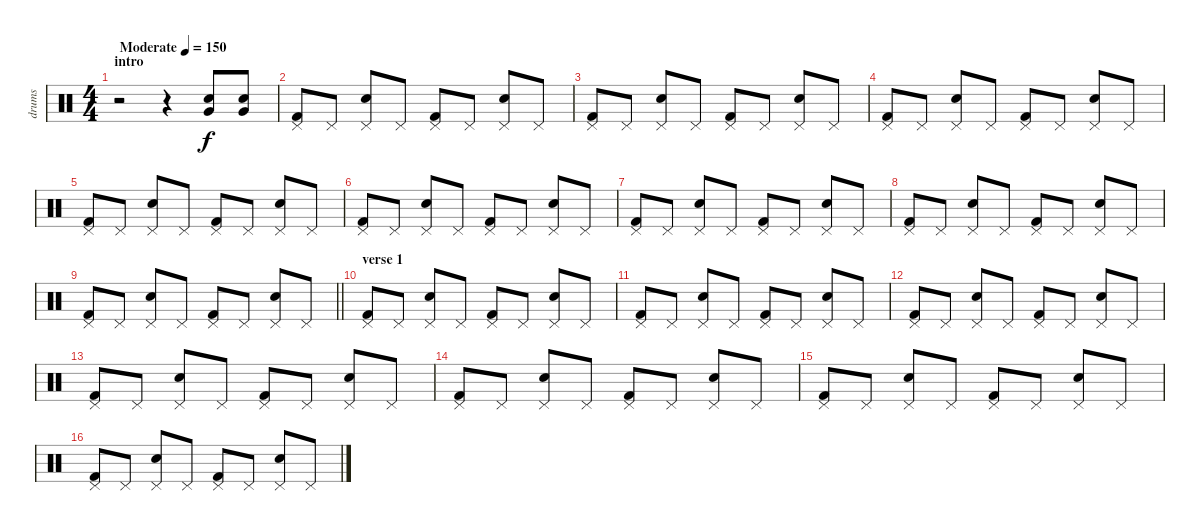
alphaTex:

\track ("drums" "drums") {instrument percussion}
\staff {score}
\articulation defaults
\ts (4 4)
\section ("" "intro")
\tempo (150 "Moderate")
\clef neutral
\ks c
r.2{dy f} r.4 ("Electric Snare (hit)" "Very Low Tom (hit)").8 ("Electric Snare (hit)" "Very Low Tom (hit)").8 |
("Kick (hit) 2" "Pedal Hi-Hat (hit)").8 "Pedal Hi-Hat (hit)".8 ("Electric Snare (hit)" "Pedal Hi-Hat (hit)").8 "Pedal Hi-Hat (hit)".8 ("Kick (hit) 2" "Pedal Hi-Hat (hit)").8 "Pedal Hi-Hat (hit)".8 ("Electric Snare (hit)" "Pedal Hi-Hat (hit)").8 "Pedal Hi-Hat (hit)".8 |
("Kick (hit) 2" "Pedal Hi-Hat (hit)").8 "Pedal Hi-Hat (hit)".8 ("Electric Snare (hit)" "Pedal Hi-Hat (hit)").8 "Pedal Hi-Hat (hit)".8 ("Kick (hit) 2" "Pedal Hi-Hat (hit)").8 "Pedal Hi-Hat (hit)".8 ("Electric Snare (hit)" "Pedal Hi-Hat (hit)").8 "Pedal Hi-Hat (hit)".8 |
("Kick (hit) 2" "Pedal Hi-Hat (hit)").8 "Pedal Hi-Hat (hit)".8 ("Electric Snare (hit)" "Pedal Hi-Hat (hit)").8 "Pedal Hi-Hat (hit)".8 ("Kick (hit) 2" "Pedal Hi-Hat (hit)").8 "Pedal Hi-Hat (hit)".8 ("Electric Snare (hit)" "Pedal Hi-Hat (hit)").8 "Pedal Hi-Hat (hit)".8 |
("Kick (hit) 2" "Pedal Hi-Hat (hit)").8 "Pedal Hi-Hat (hit)".8 ("Electric Snare (hit)" "Pedal Hi-Hat (hit)").8 "Pedal Hi-Hat (hit)".8 ("Kick (hit) 2" "Pedal Hi-Hat (hit)").8 "Pedal Hi-Hat (hit)".8 ("Electric Snare (hit)" "Pedal Hi-Hat (hit)").8 "Pedal Hi-Hat (hit)".8 |
("Kick (hit) 2" "Pedal Hi-Hat (hit)").8 "Pedal Hi-Hat (hit)".8 ("Electric Snare (hit)" "Pedal Hi-Hat (hit)").8 "Pedal Hi-Hat (hit)".8 ("Kick (hit) 2" "Pedal Hi-Hat (hit)").8 "Pedal Hi-Hat (hit)".8 ("Electric Snare (hit)" "Pedal Hi-Hat (hit)").8 "Pedal Hi-Hat (hit)".8 |
("Kick (hit) 2" "Pedal Hi-Hat (hit)").8 "Pedal Hi-Hat (hit)".8 ("Electric Snare (hit)" "Pedal Hi-Hat (hit)").8 "Pedal Hi-Hat (hit)".8 ("Kick (hit) 2" "Pedal Hi-Hat (hit)").8 "Pedal Hi-Hat (hit)".8 ("Electric Snare (hit)" "Pedal Hi-Hat (hit)").8 "Pedal Hi-Hat (hit)".8 |
("Kick (hit) 2" "Pedal Hi-Hat (hit)").8 "Pedal Hi-Hat (hit)".8 ("Electric Snare (hit)" "Pedal Hi-Hat (hit)").8 "Pedal Hi-Hat (hit)".8 ("Kick (hit) 2" "Pedal Hi-Hat (hit)").8 "Pedal Hi-Hat (hit)".8 ("Electric Snare (hit)" "Pedal Hi-Hat (hit)").8 "Pedal Hi-Hat (hit)".8 |
\barLineRight lightlight
("Kick (hit) 2" "Pedal Hi-Hat (hit)").8 "Pedal Hi-Hat (hit)".8 ("Electric Snare (hit)" "Pedal Hi-Hat (hit)").8 "Pedal Hi-Hat (hit)".8 ("Kick (hit) 2" "Pedal Hi-Hat (hit)").8 "Pedal Hi-Hat (hit)".8 ("Electric Snare (hit)" "Pedal Hi-Hat (hit)").8 "Pedal Hi-Hat (hit)".8 |
\section ("" "verse 1")
("Kick (hit) 2" "Pedal Hi-Hat (hit)").8 "Pedal Hi-Hat (hit)".8 ("Electric Snare (hit)" "Pedal Hi-Hat (hit)").8 "Pedal Hi-Hat (hit)".8 ("Kick (hit) 2" "Pedal Hi-Hat (hit)").8 "Pedal Hi-Hat (hit)".8 ("Electric Snare (hit)" "Pedal Hi-Hat (hit)").8 "Pedal Hi-Hat (hit)".8 |
("Kick (hit) 2" "Pedal Hi-Hat (hit)").8 "Pedal Hi-Hat (hit)".8 ("Electric Snare (hit)" "Pedal Hi-Hat (hit)").8 "Pedal Hi-Hat (hit)".8 ("Kick (hit) 2" "Pedal Hi-Hat (hit)").8 "Pedal Hi-Hat (hit)".8 ("Electric Snare (hit)" "Pedal Hi-Hat (hit)").8 "Pedal Hi-Hat (hit)".8 |
("Kick (hit) 2" "Pedal Hi-Hat (hit)").8 "Pedal Hi-Hat (hit)".8 ("Electric Snare (hit)" "Pedal Hi-Hat (hit)").8 "Pedal Hi-Hat (hit)".8 ("Kick (hit) 2" "Pedal Hi-Hat (hit)").8 "Pedal Hi-Hat (hit)".8 ("Electric Snare (hit)" "Pedal Hi-Hat (hit)").8 "Pedal Hi-Hat (hit)".8 |
("Kick (hit) 2" "Pedal Hi-Hat (hit)").8 "Pedal Hi-Hat (hit)".8 ("Electric Snare (hit)" "Pedal Hi-Hat (hit)").8 "Pedal Hi-Hat (hit)".8 ("Kick (hit) 2" "Pedal Hi-Hat (hit)").8 "Pedal Hi-Hat (hit)".8 ("Electric Snare (hit)" "Pedal Hi-Hat (hit)").8 "Pedal Hi-Hat (hit)".8 |
("Kick (hit) 2" "Pedal Hi-Hat (hit)").8 "Pedal Hi-Hat (hit)".8 ("Electric Snare (hit)" "Pedal Hi-Hat (hit)").8 "Pedal Hi-Hat (hit)".8 ("Kick (hit) 2" "Pedal Hi-Hat (hit)").8 "Pedal Hi-Hat (hit)".8 ("Electric Snare (hit)" "Pedal Hi-Hat (hit)").8 "Pedal Hi-Hat (hit)".8 |
("Kick (hit) 2" "Pedal Hi-Hat (hit)").8 "Pedal Hi-Hat (hit)".8 ("Electric Snare (hit)" "Pedal Hi-Hat (hit)").8 "Pedal Hi-Hat (hit)".8 ("Kick (hit) 2" "Pedal Hi-Hat (hit)").8 "Pedal Hi-Hat (hit)".8 ("Electric Snare (hit)" "Pedal Hi-Hat (hit)").8 "Pedal Hi-Hat (hit)".8 |
("Kick (hit) 2" "Pedal Hi-Hat (hit)").8 "Pedal Hi-Hat (hit)".8 ("Electric Snare (hit)" "Pedal Hi-Hat (hit)").8 "Pedal Hi-Hat (hit)".8 ("Kick (hit) 2" "Pedal Hi-Hat (hit)").8 "Pedal Hi-Hat (hit)".8 ("Electric Snare (hit)" "Pedal Hi-Hat (hit)").8 "Pedal Hi-Hat (hit)".8
